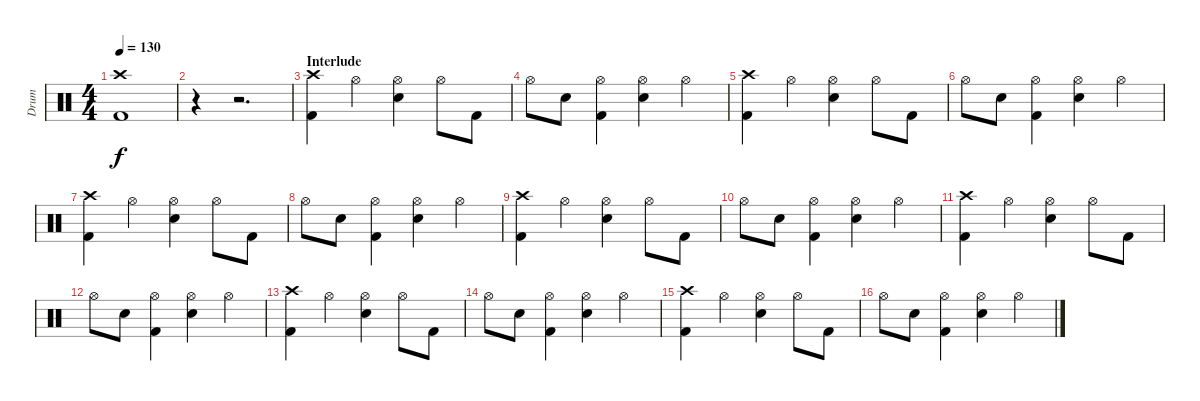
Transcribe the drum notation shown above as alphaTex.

\track ("Drum" "Drum") {instrument percussion}
\staff {score}
\articulation defaults
\ts (4 4)
\tempo 130
\clef neutral
\ks c
("Crash high (hit)" "Kick (hit) 2").1{dy f} |
r.4 r.2{d} |
\section ("" "Interlude")
("Crash high (hit)" "Kick (hit) 2").4 "Hi-Hat (open)".4 ("Snare (hit) 2" "Hi-Hat (open)").4 "Hi-Hat (open)".8 "Kick (hit) 2".8 |
"Hi-Hat (open)".8 "Snare (hit) 2".8 ("Kick (hit) 2" "Hi-Hat (open)").4 ("Snare (hit) 2" "Hi-Hat (open)").4 "Hi-Hat (open)".4 |
("Crash high (hit)" "Kick (hit) 2").4 "Hi-Hat (open)".4 ("Snare (hit) 2" "Hi-Hat (open)").4 "Hi-Hat (open)".8 "Kick (hit) 2".8 |
"Hi-Hat (open)".8 "Snare (hit) 2".8 ("Kick (hit) 2" "Hi-Hat (open)").4 ("Snare (hit) 2" "Hi-Hat (open)").4 "Hi-Hat (open)".4 |
("Crash high (hit)" "Kick (hit) 2").4 "Hi-Hat (open)".4 ("Snare (hit) 2" "Hi-Hat (open)").4 "Hi-Hat (open)".8 "Kick (hit) 2".8 |
"Hi-Hat (open)".8 "Snare (hit) 2".8 ("Kick (hit) 2" "Hi-Hat (open)").4 ("Snare (hit) 2" "Hi-Hat (open)").4 "Hi-Hat (open)".4 |
("Crash high (hit)" "Kick (hit) 2").4 "Hi-Hat (open)".4 ("Snare (hit) 2" "Hi-Hat (open)").4 "Hi-Hat (open)".8 "Kick (hit) 2".8 |
"Hi-Hat (open)".8 "Snare (hit) 2".8 ("Kick (hit) 2" "Hi-Hat (open)").4 ("Snare (hit) 2" "Hi-Hat (open)").4 "Hi-Hat (open)".4 |
("Crash high (hit)" "Kick (hit) 2").4 "Hi-Hat (open)".4 ("Snare (hit) 2" "Hi-Hat (open)").4 "Hi-Hat (open)".8 "Kick (hit) 2".8 |
"Hi-Hat (open)".8 "Snare (hit) 2".8 ("Kick (hit) 2" "Hi-Hat (open)").4 ("Snare (hit) 2" "Hi-Hat (open)").4 "Hi-Hat (open)".4 |
("Crash high (hit)" "Kick (hit) 2").4 "Hi-Hat (open)".4 ("Snare (hit) 2" "Hi-Hat (open)").4 "Hi-Hat (open)".8 "Kick (hit) 2".8 |
"Hi-Hat (open)".8 "Snare (hit) 2".8 ("Kick (hit) 2" "Hi-Hat (open)").4 ("Snare (hit) 2" "Hi-Hat (open)").4 "Hi-Hat (open)".4 |
("Crash high (hit)" "Kick (hit) 2").4 "Hi-Hat (open)".4 ("Snare (hit) 2" "Hi-Hat (open)").4 "Hi-Hat (open)".8 "Kick (hit) 2".8 |
"Hi-Hat (open)".8 "Snare (hit) 2".8 ("Kick (hit) 2" "Hi-Hat (open)").4 ("Snare (hit) 2" "Hi-Hat (open)").4 "Hi-Hat (open)".4
